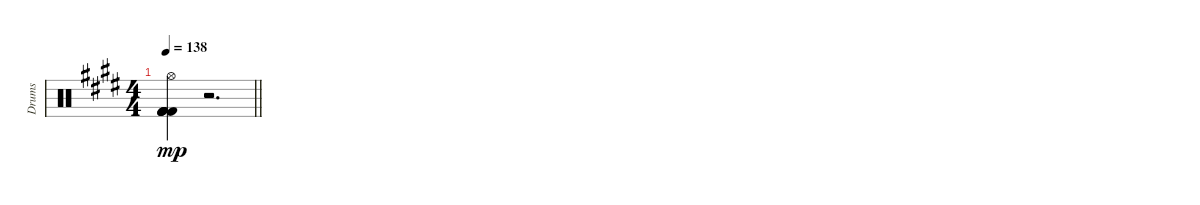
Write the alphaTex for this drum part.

\track ("Drums" "Drums") {instrument percussion}
\staff {score}
\articulation defaults
\ts (4 4)
\tempo 138
\clef neutral
\barLineRight lightlight
\ks e
("Hi-Hat (open)" "Kick (hit) 2" "Kick (hit) 2" "Kick (hit) 2" "Kick (hit) 2" "Kick (hit) 2").4{dy mp} r.2{d}
